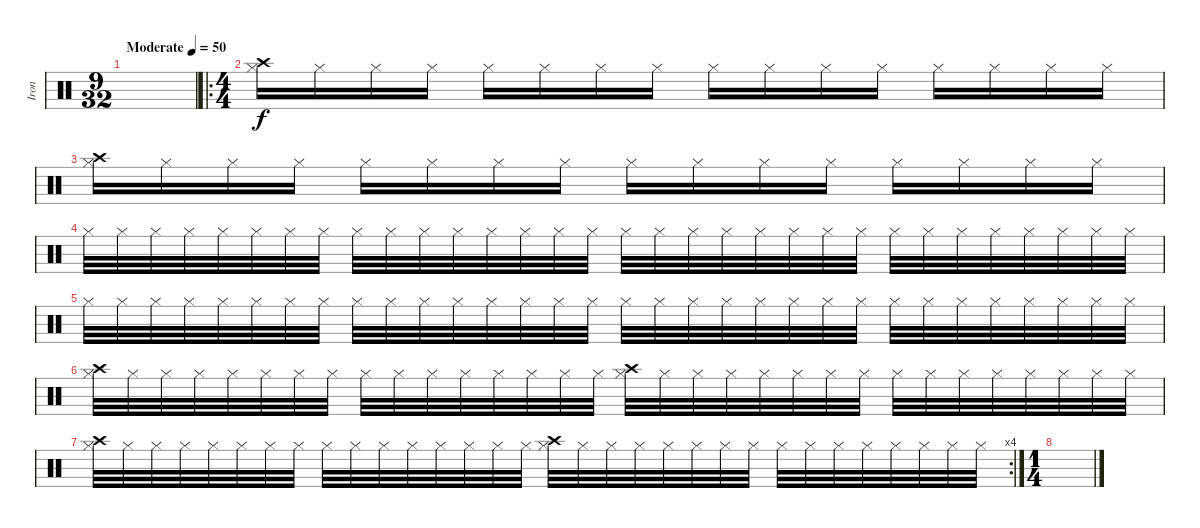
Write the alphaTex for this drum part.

\track ("Iron" "Iron") {instrument percussion}
\staff
\articulation defaults
\ts (9 32)
\tempo (50 "Moderate")
\clef neutral
\ks c
|
\ro
\ts (4 4)
("Crash high (hit)" "Hi-Hat (closed)").16 "Hi-Hat (closed)".16 "Hi-Hat (closed)".16 "Hi-Hat (closed)".16 "Hi-Hat (closed)".16 "Hi-Hat (closed)".16 "Hi-Hat (closed)".16 "Hi-Hat (closed)".16 "Hi-Hat (closed)".16 "Hi-Hat (closed)".16 "Hi-Hat (closed)".16 "Hi-Hat (closed)".16 "Hi-Hat (closed)".16 "Hi-Hat (closed)".16 "Hi-Hat (closed)".16 "Hi-Hat (closed)".16 |
("Crash high (hit)" "Hi-Hat (closed)").16 "Hi-Hat (closed)".16 "Hi-Hat (closed)".16 "Hi-Hat (closed)".16 "Hi-Hat (closed)".16 "Hi-Hat (closed)".16 "Hi-Hat (closed)".16 "Hi-Hat (closed)".16 "Hi-Hat (closed)".16 "Hi-Hat (closed)".16 "Hi-Hat (closed)".16 "Hi-Hat (closed)".16 "Hi-Hat (closed)".16 "Hi-Hat (closed)".16 "Hi-Hat (closed)".16 "Hi-Hat (closed)".16 |
"Hi-Hat (closed)".32 "Hi-Hat (closed)".32 "Hi-Hat (closed)".32 "Hi-Hat (closed)".32 "Hi-Hat (closed)".32 "Hi-Hat (closed)".32 "Hi-Hat (closed)".32 "Hi-Hat (closed)".32 "Hi-Hat (closed)".32 "Hi-Hat (closed)".32 "Hi-Hat (closed)".32 "Hi-Hat (closed)".32 "Hi-Hat (closed)".32 "Hi-Hat (closed)".32 "Hi-Hat (closed)".32 "Hi-Hat (closed)".32 "Hi-Hat (closed)".32 "Hi-Hat (closed)".32 "Hi-Hat (closed)".32 "Hi-Hat (closed)".32 "Hi-Hat (closed)".32 "Hi-Hat (closed)".32 "Hi-Hat (closed)".32 "Hi-Hat (closed)".32 "Hi-Hat (closed)".32 "Hi-Hat (closed)".32 "Hi-Hat (closed)".32 "Hi-Hat (closed)".32 "Hi-Hat (closed)".32 "Hi-Hat (closed)".32 "Hi-Hat (closed)".32 "Hi-Hat (closed)".32 |
"Hi-Hat (closed)".32 "Hi-Hat (closed)".32 "Hi-Hat (closed)".32 "Hi-Hat (closed)".32 "Hi-Hat (closed)".32 "Hi-Hat (closed)".32 "Hi-Hat (closed)".32 "Hi-Hat (closed)".32 "Hi-Hat (closed)".32 "Hi-Hat (closed)".32 "Hi-Hat (closed)".32 "Hi-Hat (closed)".32 "Hi-Hat (closed)".32 "Hi-Hat (closed)".32 "Hi-Hat (closed)".32 "Hi-Hat (closed)".32 "Hi-Hat (closed)".32 "Hi-Hat (closed)".32 "Hi-Hat (closed)".32 "Hi-Hat (closed)".32 "Hi-Hat (closed)".32 "Hi-Hat (closed)".32 "Hi-Hat (closed)".32 "Hi-Hat (closed)".32 "Hi-Hat (closed)".32 "Hi-Hat (closed)".32 "Hi-Hat (closed)".32 "Hi-Hat (closed)".32 "Hi-Hat (closed)".32 "Hi-Hat (closed)".32 "Hi-Hat (closed)".32 "Hi-Hat (closed)".32 |
("Crash high (hit)" "Hi-Hat (closed)").32 "Hi-Hat (closed)".32 "Hi-Hat (closed)".32 "Hi-Hat (closed)".32 "Hi-Hat (closed)".32 "Hi-Hat (closed)".32 "Hi-Hat (closed)".32 "Hi-Hat (closed)".32 "Hi-Hat (closed)".32 "Hi-Hat (closed)".32 "Hi-Hat (closed)".32 "Hi-Hat (closed)".32 "Hi-Hat (closed)".32 "Hi-Hat (closed)".32 "Hi-Hat (closed)".32 "Hi-Hat (closed)".32 ("Crash high (hit)" "Hi-Hat (closed)").32 "Hi-Hat (closed)".32 "Hi-Hat (closed)".32 "Hi-Hat (closed)".32 "Hi-Hat (closed)".32 "Hi-Hat (closed)".32 "Hi-Hat (closed)".32 "Hi-Hat (closed)".32 "Hi-Hat (closed)".32 "Hi-Hat (closed)".32 "Hi-Hat (closed)".32 "Hi-Hat (closed)".32 "Hi-Hat (closed)".32 "Hi-Hat (closed)".32 "Hi-Hat (closed)".32 "Hi-Hat (closed)".32 |
\rc 4
("Crash high (hit)" "Hi-Hat (closed)").32 "Hi-Hat (closed)".32 "Hi-Hat (closed)".32 "Hi-Hat (closed)".32 "Hi-Hat (closed)".32 "Hi-Hat (closed)".32 "Hi-Hat (closed)".32 "Hi-Hat (closed)".32 "Hi-Hat (closed)".32 "Hi-Hat (closed)".32 "Hi-Hat (closed)".32 "Hi-Hat (closed)".32 "Hi-Hat (closed)".32 "Hi-Hat (closed)".32 "Hi-Hat (closed)".32 "Hi-Hat (closed)".32 ("Crash high (hit)" "Hi-Hat (closed)").32 "Hi-Hat (closed)".32 "Hi-Hat (closed)".32 "Hi-Hat (closed)".32 "Hi-Hat (closed)".32 "Hi-Hat (closed)".32 "Hi-Hat (closed)".32 "Hi-Hat (closed)".32 "Hi-Hat (closed)".32 "Hi-Hat (closed)".32 "Hi-Hat (closed)".32 "Hi-Hat (closed)".32 "Hi-Hat (closed)".32 "Hi-Hat (closed)".32 "Hi-Hat (closed)".32 "Hi-Hat (closed)".32 |
\ts (1 4)
